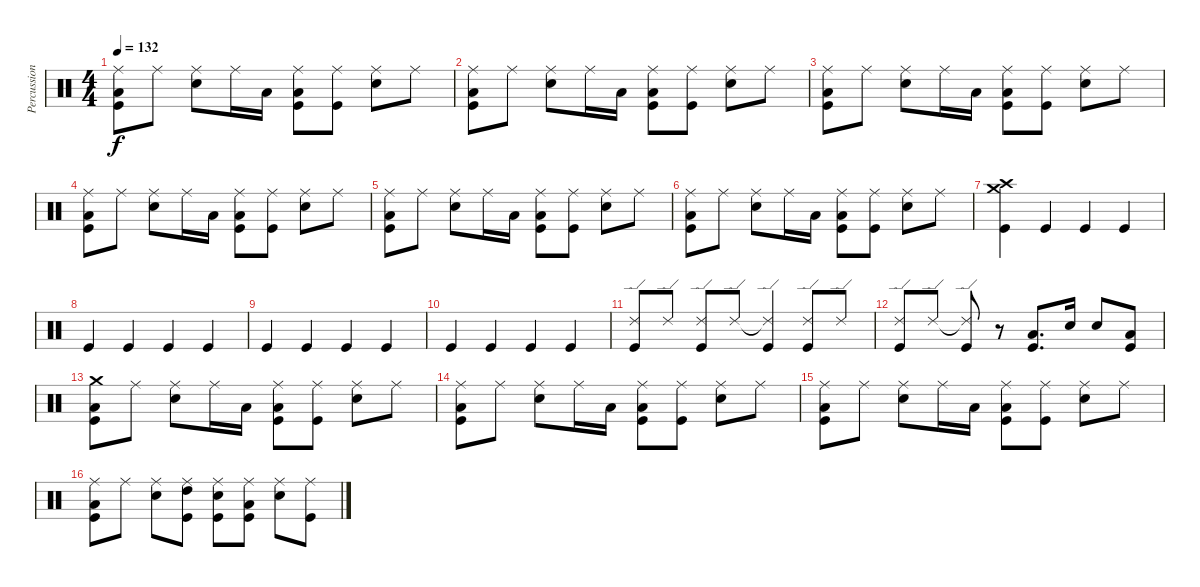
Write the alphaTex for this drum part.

\track ("Percussion" "Percussion") {instrument percussion}
\staff {score}
\articulation defaults
\ts (4 4)
\tempo 132
\clef neutral
\ks c
("Ride (middle)" "Low Tom (hit)" "Kick (hit)").8{dy f} "Ride (middle)".8 ("Ride (middle)" "Snare (hit) 2").8 "Ride (middle)".16 "Low Tom (hit)".16 ("Ride (middle)" "Low Tom (hit)" "Kick (hit)").8 ("Ride (middle)" "Kick (hit)").8 ("Ride (middle)" "Snare (hit) 2").8 "Ride (middle)".8 |
("Ride (middle)" "Low Tom (hit)" "Kick (hit)").8 "Ride (middle)".8 ("Ride (middle)" "Snare (hit) 2").8 "Ride (middle)".16 "Low Tom (hit)".16 ("Ride (middle)" "Low Tom (hit)" "Kick (hit)").8 ("Ride (middle)" "Kick (hit)").8 ("Ride (middle)" "Snare (hit) 2").8 "Ride (middle)".8 |
("Ride (middle)" "Low Tom (hit)" "Kick (hit)").8 "Ride (middle)".8 ("Ride (middle)" "Snare (hit) 2").8 "Ride (middle)".16 "Low Tom (hit)".16 ("Ride (middle)" "Low Tom (hit)" "Kick (hit)").8 ("Ride (middle)" "Kick (hit)").8 ("Ride (middle)" "Snare (hit) 2").8 "Ride (middle)".8 |
("Ride (middle)" "Low Tom (hit)" "Kick (hit)").8 "Ride (middle)".8 ("Ride (middle)" "Snare (hit) 2").8 "Ride (middle)".16 "Low Tom (hit)".16 ("Ride (middle)" "Low Tom (hit)" "Kick (hit)").8 ("Ride (middle)" "Kick (hit)").8 ("Ride (middle)" "Snare (hit) 2").8 "Ride (middle)".8 |
("Ride (middle)" "Low Tom (hit)" "Kick (hit)").8 "Ride (middle)".8 ("Ride (middle)" "Snare (hit) 2").8 "Ride (middle)".16 "Low Tom (hit)".16 ("Ride (middle)" "Low Tom (hit)" "Kick (hit)").8 ("Ride (middle)" "Kick (hit)").8 ("Ride (middle)" "Snare (hit) 2").8 "Ride (middle)".8 |
("Ride (middle)" "Low Tom (hit)" "Kick (hit)").8 "Ride (middle)".8 ("Ride (middle)" "Snare (hit) 2").8 "Ride (middle)".16 "Low Tom (hit)".16 ("Ride (middle)" "Low Tom (hit)" "Kick (hit)").8 ("Ride (middle)" "Kick (hit)").8 ("Ride (middle)" "Snare (hit) 2").8 "Ride (middle)".8 |
("Crash medium (hit)" "Crash high (hit)" "Kick (hit)").4 "Kick (hit)".4 "Kick (hit)".4 "Kick (hit)".4 |
"Kick (hit)".4 "Kick (hit)".4 "Kick (hit)".4 "Kick (hit)".4 |
"Kick (hit)".4 "Kick (hit)".4 "Kick (hit)".4 "Kick (hit)".4 |
"Kick (hit)".4 "Kick (hit)".4 "Kick (hit)".4 "Kick (hit)".4 |
("Ride (edge) 2" "Kick (hit)").8 "Ride (edge) 2".8 ("Ride (edge) 2" "Kick (hit)").8 "Ride (edge) 2".8 ("Ride (edge) 2"{t} "Kick (hit)").4 ("Ride (edge) 2" "Kick (hit)").8 "Ride (edge) 2".8 |
("Ride (edge) 2" "Kick (hit)").8 "Ride (edge) 2".8 ("Ride (edge) 2"{t} "Kick (hit)").8 r.8 ("Low Tom (hit)" "Kick (hit)").8{d} "Snare (hit) 2".16 "Snare (hit) 2".8 ("Low Floor Tom (hit)" "Kick (hit)").8 |
("Crash medium (hit)" "Low Tom (hit)" "Kick (hit)").8 "Ride (middle)".8 ("Ride (middle)" "Snare (hit) 2").8 "Ride (middle)".16 "Low Tom (hit)".16 ("Ride (middle)" "Low Tom (hit)" "Kick (hit)").8 ("Ride (middle)" "Kick (hit)").8 ("Ride (middle)" "Snare (hit) 2").8 "Ride (middle)".8 |
("Ride (middle)" "Low Tom (hit)" "Kick (hit)").8 "Ride (middle)".8 ("Ride (middle)" "Snare (hit) 2").8 "Ride (middle)".16 "Low Tom (hit)".16 ("Ride (middle)" "Low Tom (hit)" "Kick (hit)").8 ("Ride (middle)" "Kick (hit)").8 ("Ride (middle)" "Snare (hit) 2").8 "Ride (middle)".8 |
("Ride (middle)" "Low Tom (hit)" "Kick (hit)").8 "Ride (middle)".8 ("Ride (middle)" "Snare (hit) 2").8 "Ride (middle)".16 "Low Tom (hit)".16 ("Ride (middle)" "Low Tom (hit)" "Kick (hit)").8 ("Ride (middle)" "Kick (hit)").8 ("Ride (middle)" "Snare (hit) 2").8 "Ride (middle)".8 |
("Ride (middle)" "Low Tom (hit)" "Kick (hit)").8 "Ride (middle)".8 ("Ride (middle)" "Snare (hit) 2").8 ("Ride (middle)" "High Tom (hit)" "Kick (hit)").8 ("Ride (middle)" "Snare (hit) 2" "Kick (hit)").8 ("Ride (middle)" "Low Tom (hit)" "Kick (hit)").8 ("Ride (middle)" "Snare (hit) 2").8 ("Ride (middle)" "Kick (hit)").8
